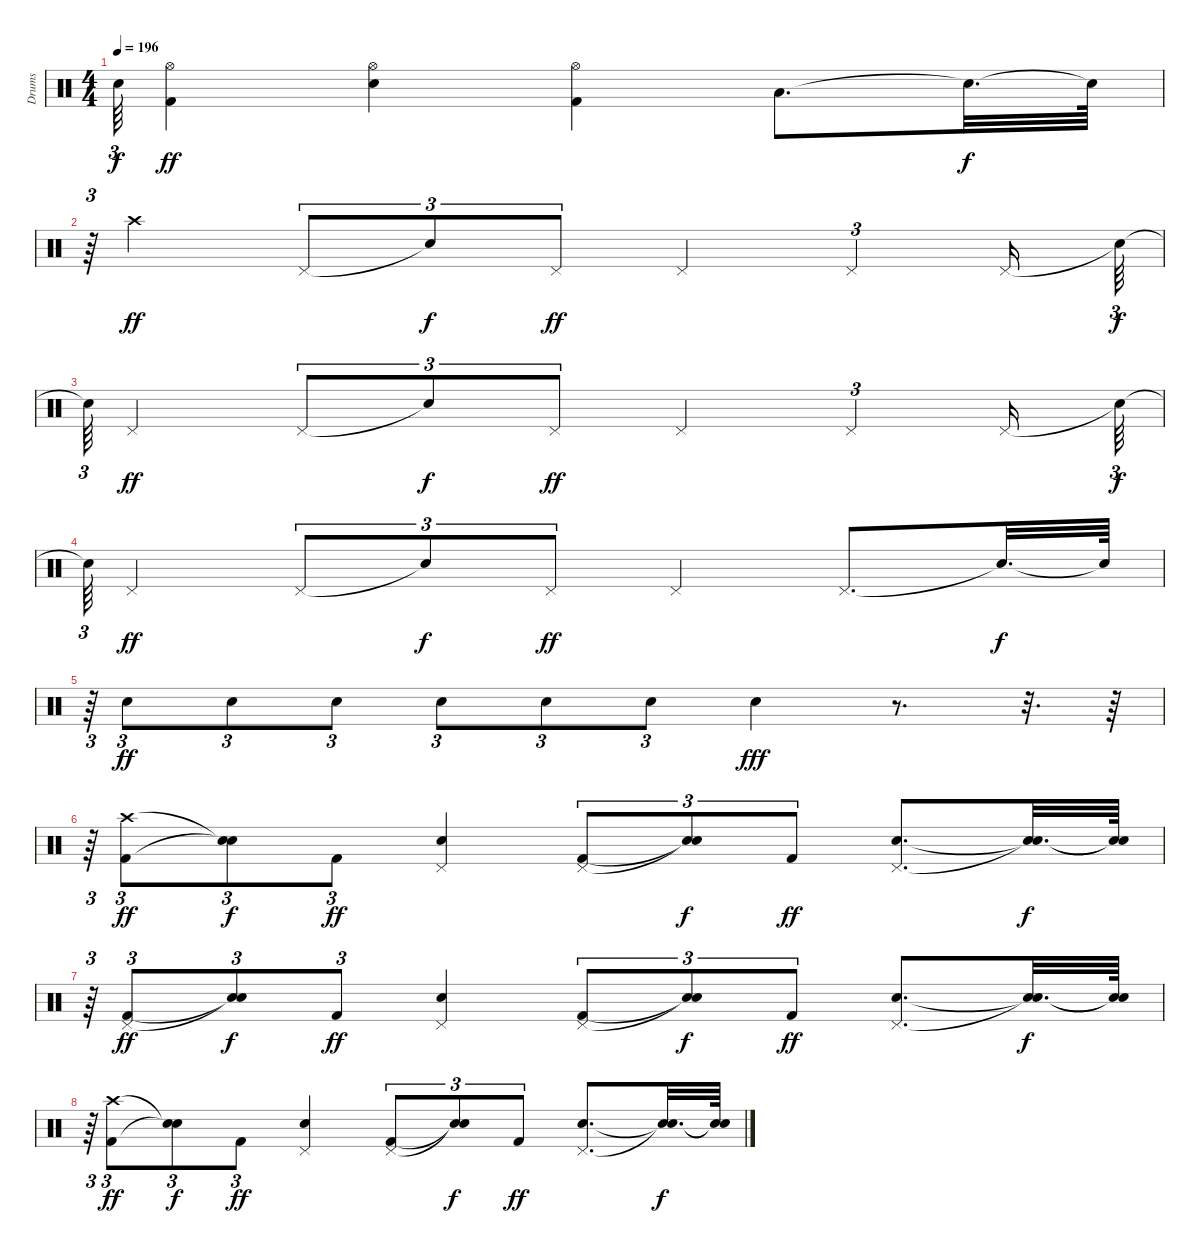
\track ("Drums" "Drums") {instrument percussion}
\staff {score}
\articulation defaults
\ts (4 4)
\tempo 196
\clef neutral
\ks c "Snare (hit)"{t}.64{tu (3 2) dy f}
("Hi-Hat (open)" "Kick (hit) 2").4{dy ff} ("Hi-Hat (open)" "Electric Snare (hit)").4 ("Hi-Hat (open)" "Kick (hit) 2").4 "Low Tom (hit)".8{d} "Snare (hit)"{t}.32{d dy f} "Snare (hit)"{t}.64 |
r.64{tu (3 2)} "Crash high (hit)".4{dy ff} "Pedal Hi-Hat (hit)".8{tu (3 2)} "Snare (hit)"{t}.8{tu (3 2) dy f} "Pedal Hi-Hat (hit)".8{tu (3 2) dy ff} "Pedal Hi-Hat (hit)".4 "Pedal Hi-Hat (hit)".4{tu (3 2)} "Pedal Hi-Hat (hit)".16 "Snare (hit)"{t}.64{tu (3 2) dy f} |
"Snare (hit)"{t}.64{tu (3 2)} "Pedal Hi-Hat (hit)".4{dy ff} "Pedal Hi-Hat (hit)".8{tu (3 2)} "Snare (hit)"{t}.8{tu (3 2) dy f} "Pedal Hi-Hat (hit)".8{tu (3 2) dy ff} "Pedal Hi-Hat (hit)".4 "Pedal Hi-Hat (hit)".4{tu (3 2)} "Pedal Hi-Hat (hit)".16 "Snare (hit)"{t}.64{tu (3 2) dy f} |
"Snare (hit)"{t}.64{tu (3 2)} "Pedal Hi-Hat (hit)".4{dy ff} "Pedal Hi-Hat (hit)".8{tu (3 2)} "Snare (hit)"{t}.8{tu (3 2) dy f} "Pedal Hi-Hat (hit)".8{tu (3 2) dy ff} "Pedal Hi-Hat (hit)".4 "Pedal Hi-Hat (hit)".8{d} "Snare (hit)"{t}.32{d dy f} "Snare (hit)"{t}.64 |
r.64{tu (3 2)} "Electric Snare (hit)".8{tu (3 2) dy ff} "Electric Snare (hit)".8{tu (3 2)} "Electric Snare (hit)".8{tu (3 2)} "Electric Snare (hit)".8{tu (3 2)} "Electric Snare (hit)".8{tu (3 2)} "Electric Snare (hit)".8{tu (3 2)} "Electric Snare (hit)".4{dy fff} r.8{d} r.32{d} r.64 |
r.64{tu (3 2)} ("Kick (hit) 2" "Crash high (hit)").8{tu (3 2) dy ff} ("Snare (hit)"{t} "Snare (hit)"{t}).8{tu (3 2) dy f} "Kick (hit) 2".8{tu (3 2) dy ff} ("Pedal Hi-Hat (hit)" "Electric Snare (hit)").4 ("Kick (hit) 2" "Pedal Hi-Hat (hit)").8{tu (3 2)} ("Snare (hit)"{t} "Snare (hit)"{t}).8{tu (3 2) dy f} "Kick (hit) 2".8{tu (3 2) dy ff} ("Pedal Hi-Hat (hit)" "Electric Snare (hit)").8{d} ("Snare (hit)"{t} "Snare (hit)"{t}).32{d dy f} ("Snare (hit)"{t} "Snare (hit)"{t}).64 |
r.64{tu (3 2)} ("Kick (hit) 2" "Pedal Hi-Hat (hit)").8{tu (3 2) dy ff} ("Snare (hit)"{t} "Snare (hit)"{t}).8{tu (3 2) dy f} "Kick (hit) 2".8{tu (3 2) dy ff} ("Pedal Hi-Hat (hit)" "Electric Snare (hit)").4 ("Kick (hit) 2" "Pedal Hi-Hat (hit)").8{tu (3 2)} ("Snare (hit)"{t} "Snare (hit)"{t}).8{tu (3 2) dy f} "Kick (hit) 2".8{tu (3 2) dy ff} ("Pedal Hi-Hat (hit)" "Electric Snare (hit)").8{d} ("Snare (hit)"{t} "Snare (hit)"{t}).32{d dy f} ("Snare (hit)"{t} "Snare (hit)"{t}).64 |
r.64{tu (3 2)} ("Kick (hit) 2" "Crash high (hit)").8{tu (3 2) dy ff} ("Snare (hit)"{t} "Snare (hit)"{t}).8{tu (3 2) dy f} "Kick (hit) 2".8{tu (3 2) dy ff} ("Pedal Hi-Hat (hit)" "Electric Snare (hit)").4 ("Kick (hit) 2" "Pedal Hi-Hat (hit)").8{tu (3 2)} ("Snare (hit)"{t} "Snare (hit)"{t}).8{tu (3 2) dy f} "Kick (hit) 2".8{tu (3 2) dy ff} ("Pedal Hi-Hat (hit)" "Electric Snare (hit)").8{d} ("Snare (hit)"{t} "Snare (hit)"{t}).32{d dy f} ("Snare (hit)"{t} "Snare (hit)"{t}).64
